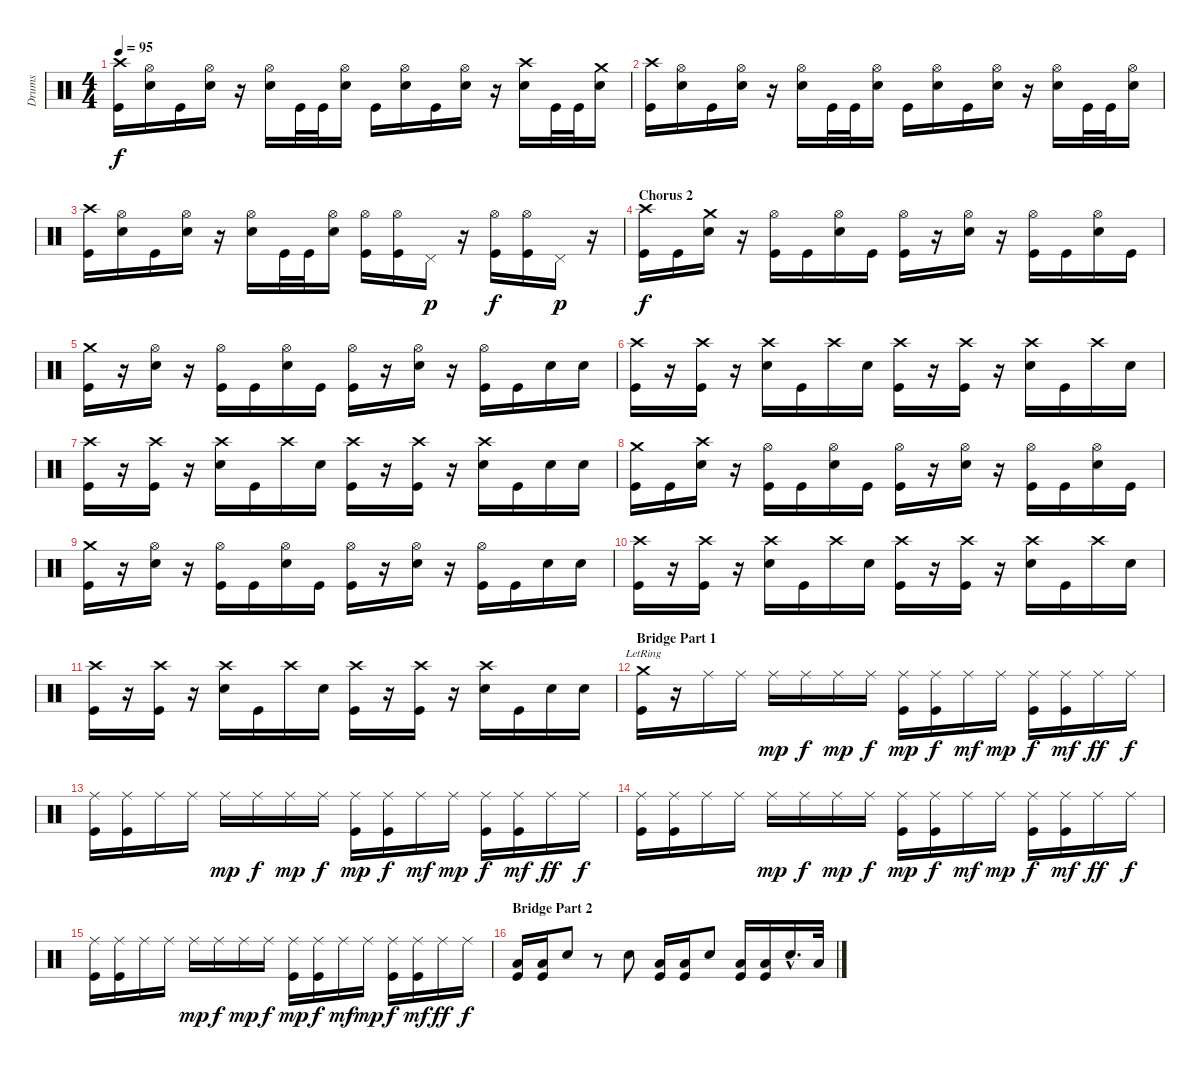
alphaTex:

\track ("Drums" "Drums") {instrument percussion}
\staff {score}
\articulation defaults
\ts (4 4)
\tempo 95
\clef neutral
\ks c
("Crash high (hit)" "Kick (hit)").16{dy f} ("Hi-Hat (open)" "Electric Snare (hit)").16 "Kick (hit)".16 ("Hi-Hat (open)" "Electric Snare (hit)").16 r.16 ("Hi-Hat (open)" "Electric Snare (hit)").16 "Kick (hit)".32 "Kick (hit)".32 ("Hi-Hat (open)" "Electric Snare (hit)").16 "Kick (hit)".16 ("Hi-Hat (open)" "Electric Snare (hit)").16 "Kick (hit)".16 ("Hi-Hat (open)" "Electric Snare (hit)").16 r.16 ("Crash high (hit)" "Electric Snare (hit)").16 "Kick (hit)".32 "Kick (hit)".32 ("Crash medium (hit)" "Electric Snare (hit)").16 |
("Crash high (hit)" "Kick (hit)").16 ("Hi-Hat (open)" "Electric Snare (hit)").16 "Kick (hit)".16 ("Hi-Hat (open)" "Electric Snare (hit)").16 r.16 ("Hi-Hat (open)" "Electric Snare (hit)").16 "Kick (hit)".32 "Kick (hit)".32 ("Hi-Hat (open)" "Electric Snare (hit)").16 "Kick (hit)".16 ("Hi-Hat (open)" "Electric Snare (hit)").16 "Kick (hit)".16 ("Hi-Hat (open)" "Electric Snare (hit)").16 r.16 ("Hi-Hat (open)" "Electric Snare (hit)").16 "Kick (hit)".32 "Kick (hit)".32 ("Hi-Hat (open)" "Electric Snare (hit)").16 |
("Crash high (hit)" "Kick (hit)").16 ("Hi-Hat (open)" "Electric Snare (hit)").16 "Kick (hit)".16 ("Hi-Hat (open)" "Electric Snare (hit)").16 r.16 ("Hi-Hat (open)" "Electric Snare (hit)").16 "Kick (hit)".32 "Kick (hit)".32 ("Hi-Hat (open)" "Electric Snare (hit)").16 ("Hi-Hat (open)" "Kick (hit)").16 ("Hi-Hat (open)" "Kick (hit)").16 "Pedal Hi-Hat (hit)".16{dy p} r.16 ("Hi-Hat (open)" "Kick (hit)").16{dy f} ("Hi-Hat (open)" "Kick (hit)").16 "Pedal Hi-Hat (hit)".16{dy p} r.16 |
\section ("" "Chorus 2")
("Crash high (hit)" "Kick (hit)").16{dy f} "Kick (hit)".16 ("Crash medium (hit)" "Electric Snare (hit)").16 r.16 ("Hi-Hat (open)" "Kick (hit)").16 "Kick (hit)".16 ("Hi-Hat (open)" "Electric Snare (hit)").16 "Kick (hit)".16 ("Hi-Hat (open)" "Kick (hit)").16 r.16 ("Hi-Hat (open)" "Electric Snare (hit)").16 r.16 ("Hi-Hat (open)" "Kick (hit)").16 "Kick (hit)".16 ("Hi-Hat (open)" "Electric Snare (hit)").16 "Kick (hit)".16 |
("Crash medium (hit)" "Kick (hit)").16 r.16 ("Hi-Hat (open)" "Electric Snare (hit)").16 r.16 ("Hi-Hat (open)" "Kick (hit)").16 "Kick (hit)".16 ("Hi-Hat (open)" "Electric Snare (hit)").16 "Kick (hit)".16 ("Hi-Hat (open)" "Kick (hit)").16 r.16 ("Hi-Hat (open)" "Electric Snare (hit)").16 r.16 ("Hi-Hat (open)" "Kick (hit)").16 "Kick (hit)".16 "Electric Snare (hit)".16 "Electric Snare (hit)".16 |
("Crash high (hit)" "Kick (hit)").16 r.16 ("Crash high (hit)" "Kick (hit)").16 r.16 ("Crash high (hit)" "Electric Snare (hit)").16 "Kick (hit)".16 "Crash high (hit)".16 "Electric Snare (hit)".16 ("Crash high (hit)" "Kick (hit)").16 r.16 ("Crash high (hit)" "Kick (hit)").16 r.16 ("Crash high (hit)" "Electric Snare (hit)").16 "Kick (hit)".16 "Crash high (hit)".16 "Electric Snare (hit)".16 |
("Crash high (hit)" "Kick (hit)").16 r.16 ("Crash high (hit)" "Kick (hit)").16 r.16 ("Crash high (hit)" "Electric Snare (hit)").16 "Kick (hit)".16 "Crash high (hit)".16 "Electric Snare (hit)".16 ("Crash high (hit)" "Kick (hit)").16 r.16 ("Crash high (hit)" "Kick (hit)").16 r.16 ("Crash high (hit)" "Electric Snare (hit)").16 "Kick (hit)".16 "Electric Snare (hit)".16 "Electric Snare (hit)".16 |
("Crash medium (hit)" "Kick (hit)").16 "Kick (hit)".16 ("Crash high (hit)" "Electric Snare (hit)").16 r.16 ("Hi-Hat (open)" "Kick (hit)").16 "Kick (hit)".16 ("Hi-Hat (open)" "Electric Snare (hit)").16 "Kick (hit)".16 ("Hi-Hat (open)" "Kick (hit)").16 r.16 ("Hi-Hat (open)" "Electric Snare (hit)").16 r.16 ("Hi-Hat (open)" "Kick (hit)").16 "Kick (hit)".16 ("Hi-Hat (open)" "Electric Snare (hit)").16 "Kick (hit)".16 |
("Crash medium (hit)" "Kick (hit)").16 r.16 ("Hi-Hat (open)" "Electric Snare (hit)").16 r.16 ("Hi-Hat (open)" "Kick (hit)").16 "Kick (hit)".16 ("Hi-Hat (open)" "Electric Snare (hit)").16 "Kick (hit)".16 ("Hi-Hat (open)" "Kick (hit)").16 r.16 ("Hi-Hat (open)" "Electric Snare (hit)").16 r.16 ("Hi-Hat (open)" "Kick (hit)").16 "Kick (hit)".16 "Electric Snare (hit)".16 "Electric Snare (hit)".16 |
("Crash high (hit)" "Kick (hit)").16 r.16 ("Crash high (hit)" "Kick (hit)").16 r.16 ("Crash high (hit)" "Electric Snare (hit)").16 "Kick (hit)".16 "Crash high (hit)".16 "Electric Snare (hit)".16 ("Crash high (hit)" "Kick (hit)").16 r.16 ("Crash high (hit)" "Kick (hit)").16 r.16 ("Crash high (hit)" "Electric Snare (hit)").16 "Kick (hit)".16 "Crash high (hit)".16 "Electric Snare (hit)".16 |
("Crash high (hit)" "Kick (hit)").16 r.16 ("Crash high (hit)" "Kick (hit)").16 r.16 ("Crash high (hit)" "Electric Snare (hit)").16 "Kick (hit)".16 "Crash high (hit)".16 "Electric Snare (hit)".16 ("Crash high (hit)" "Kick (hit)").16 r.16 ("Crash high (hit)" "Kick (hit)").16 r.16 ("Crash high (hit)" "Electric Snare (hit)").16 "Kick (hit)".16 "Electric Snare (hit)".16 "Electric Snare (hit)".16 |
\section ("" "Bridge Part 1")
("Crash medium (hit)"{lr} "Kick (hit)"{lr}).16 r.16 "Ride (middle)".16{volume 10} "Ride (middle)".16 "Ride (middle)".16{dy mp} "Ride (middle)".16{dy f} "Ride (middle)".16{dy mp} "Ride (middle)".16{dy f} ("Ride (middle)" "Kick (hit)").16{dy mp} ("Ride (middle)" "Kick (hit)").16{dy f} "Ride (middle)".16{dy mf} "Ride (middle)".16{dy mp} ("Ride (middle)" "Kick (hit)").16{dy f} ("Ride (middle)" "Kick (hit)").16{dy mf} "Ride (middle)".16{dy ff} "Ride (middle)".16{dy f} |
("Ride (middle)" "Kick (hit)").16{volume 8} ("Ride (middle)" "Kick (hit)").16 "Ride (middle)".16 "Ride (middle)".16 "Ride (middle)".16{dy mp} "Ride (middle)".16{dy f} "Ride (middle)".16{dy mp} "Ride (middle)".16{dy f} ("Ride (middle)" "Kick (hit)").16{dy mp} ("Ride (middle)" "Kick (hit)").16{dy f} "Ride (middle)".16{dy mf} "Ride (middle)".16{dy mp} ("Ride (middle)" "Kick (hit)").16{dy f} ("Ride (middle)" "Kick (hit)").16{dy mf} "Ride (middle)".16{dy ff} "Ride (middle)".16{dy f} |
("Ride (middle)" "Kick (hit)").16 ("Ride (middle)" "Kick (hit)").16 "Ride (middle)".16 "Ride (middle)".16 "Ride (middle)".16{dy mp} "Ride (middle)".16{dy f} "Ride (middle)".16{dy mp} "Ride (middle)".16{dy f} ("Ride (middle)" "Kick (hit)").16{dy mp} ("Ride (middle)" "Kick (hit)").16{dy f} "Ride (middle)".16{dy mf} "Ride (middle)".16{dy mp} ("Ride (middle)" "Kick (hit)").16{dy f} ("Ride (middle)" "Kick (hit)").16{dy mf} "Ride (middle)".16{dy ff} "Ride (middle)".16{dy f} |
("Ride (middle)" "Kick (hit)").16 ("Ride (middle)" "Kick (hit)").16 "Ride (middle)".16 "Ride (middle)".16 "Ride (middle)".16{dy mp} "Ride (middle)".16{dy f} "Ride (middle)".16{dy mp} "Ride (middle)".16{dy f} ("Ride (middle)" "Kick (hit)").16{dy mp} ("Ride (middle)" "Kick (hit)").16{dy f} "Ride (middle)".16{dy mf} "Ride (middle)".16{dy mp} ("Ride (middle)" "Kick (hit)").16{dy f} ("Ride (middle)" "Kick (hit)").16{dy mf} "Ride (middle)".16{dy ff} "Ride (middle)".16{dy f} |
\section ("" "Bridge Part 2")
("Kick (hit)" "Low Floor Tom (hit)").16{volume 16} ("Kick (hit)" "Low Floor Tom (hit)").16 "Electric Snare (hit)".8 r.8 "Electric Snare (hit)".8 ("Kick (hit)" "Low Floor Tom (hit)").16 ("Kick (hit)" "Low Floor Tom (hit)").16 "Electric Snare (hit)".8 ("Kick (hit)" "Low Floor Tom (hit)").16 ("Kick (hit)" "Low Floor Tom (hit)").16 "Electric Snare (hit)"{hac}.16{d} "Low Floor Tom (hit)".32
